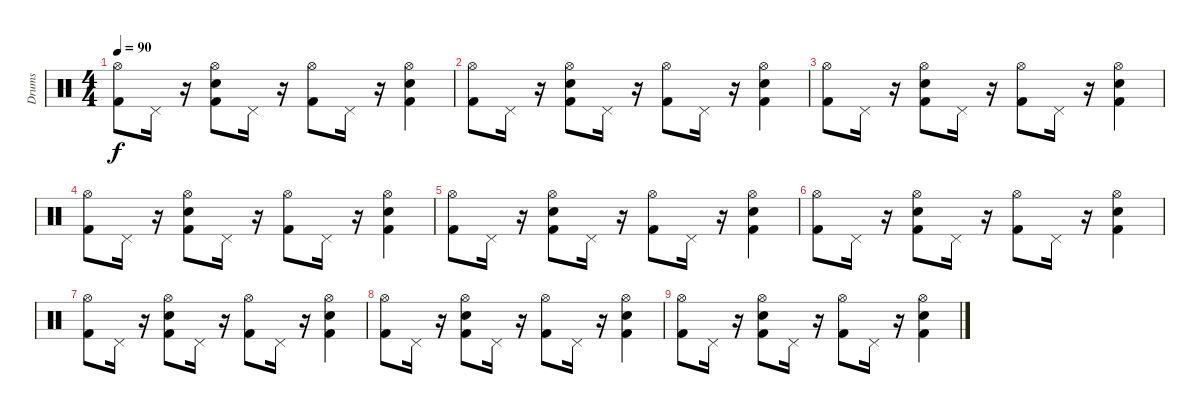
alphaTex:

\track ("Drums" "Drums") {instrument percussion}
\staff {score}
\articulation defaults
\ts (4 4)
\tempo 90
\clef neutral
\ks c
("Hi-Hat (open)" "Kick (hit) 2").8{dy f} "Pedal Hi-Hat (hit)".16 r.16 ("Hi-Hat (open)" "Electric Snare (hit)" "Kick (hit) 2").8 "Pedal Hi-Hat (hit)".16 r.16 ("Hi-Hat (open)" "Kick (hit) 2").8 "Pedal Hi-Hat (hit)".16 r.16 ("Hi-Hat (open)" "Electric Snare (hit)" "Kick (hit) 2").4 |
("Hi-Hat (open)" "Kick (hit) 2").8 "Pedal Hi-Hat (hit)".16 r.16 ("Hi-Hat (open)" "Electric Snare (hit)" "Kick (hit) 2").8 "Pedal Hi-Hat (hit)".16 r.16 ("Hi-Hat (open)" "Kick (hit) 2").8 "Pedal Hi-Hat (hit)".16 r.16 ("Hi-Hat (open)" "Electric Snare (hit)" "Kick (hit) 2").4 |
("Hi-Hat (open)" "Kick (hit) 2").8 "Pedal Hi-Hat (hit)".16 r.16 ("Hi-Hat (open)" "Electric Snare (hit)" "Kick (hit) 2").8 "Pedal Hi-Hat (hit)".16 r.16 ("Hi-Hat (open)" "Kick (hit) 2").8 "Pedal Hi-Hat (hit)".16 r.16 ("Hi-Hat (open)" "Electric Snare (hit)" "Kick (hit) 2").4 |
("Hi-Hat (open)" "Kick (hit) 2").8 "Pedal Hi-Hat (hit)".16 r.16 ("Hi-Hat (open)" "Electric Snare (hit)" "Kick (hit) 2").8 "Pedal Hi-Hat (hit)".16 r.16 ("Hi-Hat (open)" "Kick (hit) 2").8 "Pedal Hi-Hat (hit)".16 r.16 ("Hi-Hat (open)" "Electric Snare (hit)" "Kick (hit) 2").4 |
("Hi-Hat (open)" "Kick (hit) 2").8 "Pedal Hi-Hat (hit)".16 r.16 ("Hi-Hat (open)" "Electric Snare (hit)" "Kick (hit) 2").8 "Pedal Hi-Hat (hit)".16 r.16 ("Hi-Hat (open)" "Kick (hit) 2").8 "Pedal Hi-Hat (hit)".16 r.16 ("Hi-Hat (open)" "Electric Snare (hit)" "Kick (hit) 2").4 |
("Hi-Hat (open)" "Kick (hit) 2").8{volume 4} "Pedal Hi-Hat (hit)".16 r.16 ("Hi-Hat (open)" "Electric Snare (hit)" "Kick (hit) 2").8 "Pedal Hi-Hat (hit)".16 r.16 ("Hi-Hat (open)" "Kick (hit) 2").8 "Pedal Hi-Hat (hit)".16 r.16 ("Hi-Hat (open)" "Electric Snare (hit)" "Kick (hit) 2").4 |
("Hi-Hat (open)" "Kick (hit) 2").8 "Pedal Hi-Hat (hit)".16 r.16 ("Hi-Hat (open)" "Electric Snare (hit)" "Kick (hit) 2").8 "Pedal Hi-Hat (hit)".16 r.16 ("Hi-Hat (open)" "Kick (hit) 2").8 "Pedal Hi-Hat (hit)".16 r.16 ("Hi-Hat (open)" "Electric Snare (hit)" "Kick (hit) 2").4 |
("Hi-Hat (open)" "Kick (hit) 2").8 "Pedal Hi-Hat (hit)".16 r.16 ("Hi-Hat (open)" "Electric Snare (hit)" "Kick (hit) 2").8 "Pedal Hi-Hat (hit)".16 r.16 ("Hi-Hat (open)" "Kick (hit) 2").8 "Pedal Hi-Hat (hit)".16 r.16 ("Hi-Hat (open)" "Electric Snare (hit)" "Kick (hit) 2").4 |
("Hi-Hat (open)" "Kick (hit) 2").8 "Pedal Hi-Hat (hit)".16 r.16 ("Hi-Hat (open)" "Electric Snare (hit)" "Kick (hit) 2").8 "Pedal Hi-Hat (hit)".16 r.16 ("Hi-Hat (open)" "Kick (hit) 2").8 "Pedal Hi-Hat (hit)".16 r.16 ("Hi-Hat (open)" "Electric Snare (hit)" "Kick (hit) 2").4
